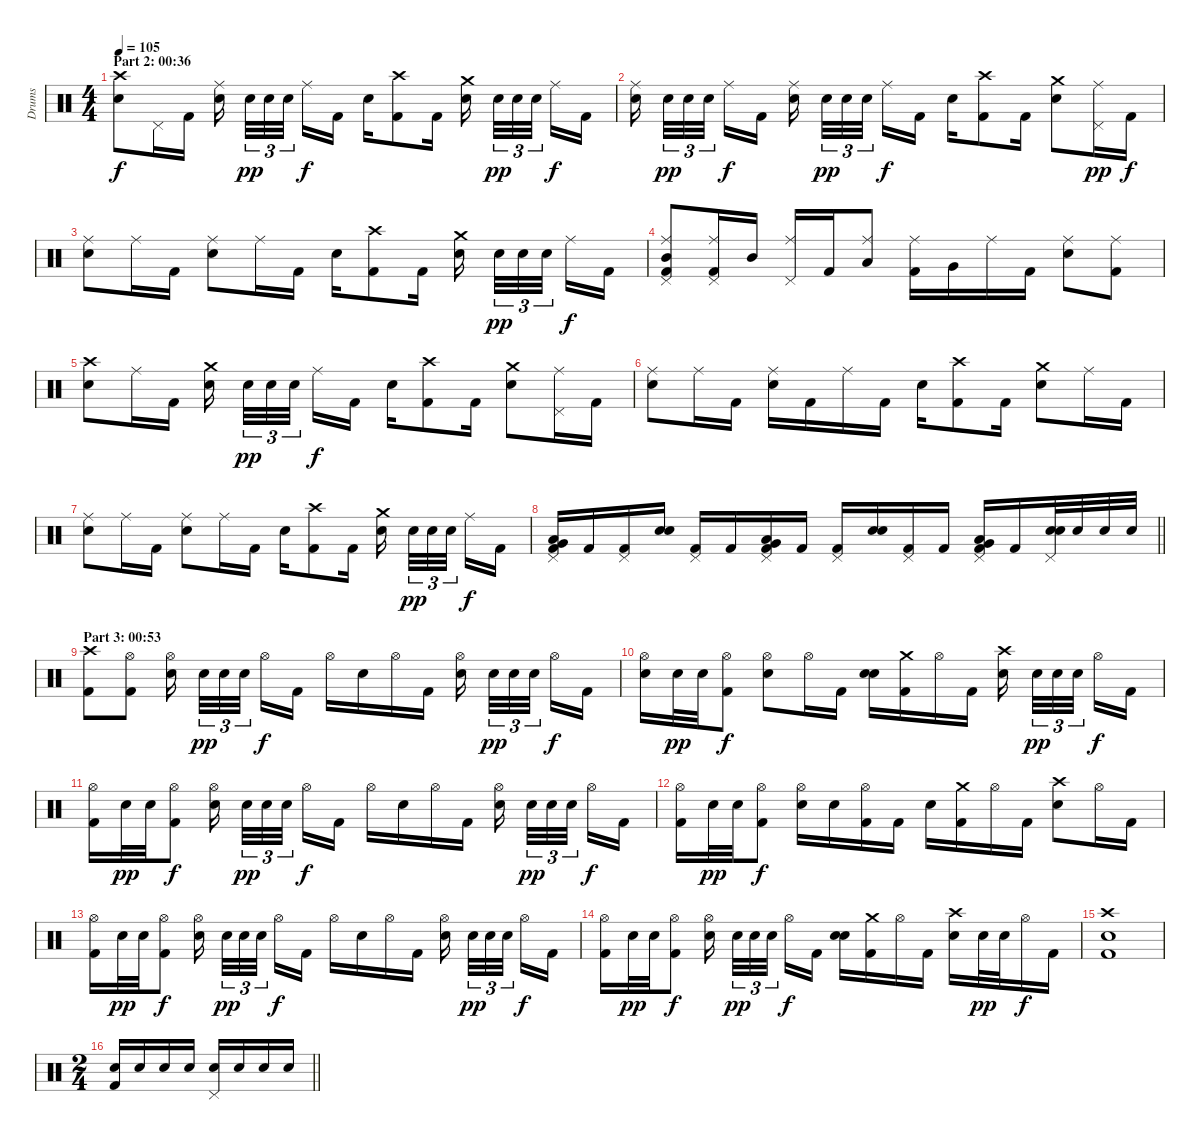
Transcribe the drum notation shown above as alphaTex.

\track ("Drums" "Drums") {instrument percussion}
\staff {score}
\articulation defaults
\ts (4 4)
\section ("" "Part 2: 00:36")
\tempo 105
\clef neutral
\ks c
("Crash high (hit)" "Electric Snare (hit)").8{dy f} "Pedal Hi-Hat (hit)".16 "Kick (hit) 2".16 ("Ride (middle)" "Electric Snare (hit)").16{beam splitsecondary} "Electric Snare (hit)".32{tu (3 2) dy pp} "Electric Snare (hit)".32{tu (3 2)} "Electric Snare (hit)".32{tu (3 2) beam splitsecondary} "Ride (middle)".16{dy f} "Kick (hit) 2".16 "Electric Snare (hit)".16 ("Crash high (hit)" "Kick (hit) 2").8 "Kick (hit) 2".16 ("Crash medium (hit)" "Electric Snare (hit)").16{beam splitsecondary} "Electric Snare (hit)".32{tu (3 2) dy pp} "Electric Snare (hit)".32{tu (3 2)} "Electric Snare (hit)".32{tu (3 2) beam splitsecondary} "Ride (middle)".16{dy f} "Kick (hit) 2".16 |
("Ride (middle)" "Electric Snare (hit)").16{beam splitsecondary} "Electric Snare (hit)".32{tu (3 2) dy pp} "Electric Snare (hit)".32{tu (3 2)} "Electric Snare (hit)".32{tu (3 2) beam splitsecondary} "Ride (middle)".16{dy f} "Kick (hit) 2".16 ("Ride (middle)" "Electric Snare (hit)").16{beam splitsecondary} "Electric Snare (hit)".32{tu (3 2) dy pp} "Electric Snare (hit)".32{tu (3 2)} "Electric Snare (hit)".32{tu (3 2) beam splitsecondary} "Ride (middle)".16{dy f} "Kick (hit) 2".16 "Electric Snare (hit)".16 ("Crash high (hit)" "Kick (hit) 2").8 "Kick (hit) 2".16 ("Crash medium (hit)" "Electric Snare (hit)").8 ("Ride (middle)" "Pedal Hi-Hat (hit)").16{dy pp} "Kick (hit) 2".16{dy f} |
("Ride (middle)" "Electric Snare (hit)").8 "Ride (middle)".16 "Kick (hit) 2".16 ("Ride (middle)" "Electric Snare (hit)").8 "Ride (middle)".16 "Kick (hit) 2".16 "Electric Snare (hit)".16 ("Crash high (hit)" "Kick (hit) 2").8 "Kick (hit) 2".16 ("Crash medium (hit)" "Electric Snare (hit)").16{beam splitsecondary} "Electric Snare (hit)".32{tu (3 2) dy pp} "Electric Snare (hit)".32{tu (3 2)} "Electric Snare (hit)".32{tu (3 2) beam splitsecondary} "Ride (middle)".16{dy f} "Kick (hit) 2".16 |
("Ride (middle)" "Pedal Hi-Hat (hit)" "Mid Tom (hit)" "Kick (hit) 2").8 ("Ride (middle)" "Pedal Hi-Hat (hit)" "Kick (hit) 2").16 "Mid Tom (hit)".16 ("Ride (middle)" "Pedal Hi-Hat (hit)").16 "Kick (hit) 2".16 ("Ride (middle)" "Low Tom (hit)").8 ("Ride (middle)" "Kick (hit) 2").16 "Very Low Tom (hit)".16 "Ride (middle)".16 "Kick (hit) 2".16 ("Ride (middle)" "Electric Snare (hit)").8 ("Ride (middle)" "Kick (hit) 2").8 |
("Crash high (hit)" "Electric Snare (hit)").8 "Ride (middle)".16 "Kick (hit) 2".16 ("Crash medium (hit)" "Electric Snare (hit)").16{beam splitsecondary} "Electric Snare (hit)".32{tu (3 2) dy pp} "Electric Snare (hit)".32{tu (3 2)} "Electric Snare (hit)".32{tu (3 2) beam splitsecondary} "Ride (middle)".16{dy f} "Kick (hit) 2".16 "Electric Snare (hit)".16 ("Crash high (hit)" "Kick (hit) 2").8 "Kick (hit) 2".16 ("Crash medium (hit)" "Electric Snare (hit)").8 ("Ride (middle)" "Pedal Hi-Hat (hit)").16 "Kick (hit) 2".16 |
("Ride (middle)" "Electric Snare (hit)").8 "Ride (middle)".16 "Kick (hit) 2".16 ("Ride (middle)" "Electric Snare (hit)").16 "Kick (hit) 2".16 "Ride (middle)".16 "Kick (hit) 2".16 "Electric Snare (hit)".16 ("Crash high (hit)" "Kick (hit) 2").8 "Kick (hit) 2".16 ("Crash medium (hit)" "Electric Snare (hit)").8 "Ride (middle)".16 "Kick (hit) 2".16 |
("Ride (middle)" "Electric Snare (hit)").8 "Ride (middle)".16 "Kick (hit) 2".16 ("Ride (middle)" "Electric Snare (hit)").8 "Ride (middle)".16 "Kick (hit) 2".16 "Electric Snare (hit)".16 ("Crash high (hit)" "Kick (hit) 2").8 "Kick (hit) 2".16 ("Crash medium (hit)" "Electric Snare (hit)").16{beam splitsecondary} "Electric Snare (hit)".32{tu (3 2) dy pp} "Electric Snare (hit)".32{tu (3 2)} "Electric Snare (hit)".32{tu (3 2) beam splitsecondary} "Ride (middle)".16{dy f} "Kick (hit) 2".16 |
\barLineRight lightlight
("Pedal Hi-Hat (hit)" "Low Tom (hit)" "Very Low Tom (hit)" "Kick (hit) 2").16{bu 60} "Kick (hit) 2".16 ("Pedal Hi-Hat (hit)" "Kick (hit) 2").16 ("Electric Snare (hit)" "Electric Snare (hit)").16{bu 60} ("Pedal Hi-Hat (hit)" "Kick (hit) 2").16 "Kick (hit) 2".16 ("Pedal Hi-Hat (hit)" "Low Tom (hit)" "Very Low Tom (hit)" "Kick (hit) 2").16{bu 60} "Kick (hit) 2".16 ("Pedal Hi-Hat (hit)" "Kick (hit) 2").16 ("Electric Snare (hit)" "Electric Snare (hit)").16{bu 60} ("Pedal Hi-Hat (hit)" "Kick (hit) 2").16 "Kick (hit) 2".16 ("Pedal Hi-Hat (hit)" "Low Tom (hit)" "Very Low Tom (hit)" "Kick (hit) 2").16{bu 60} "Kick (hit) 2".16 ("Pedal Hi-Hat (hit)" "Electric Snare (hit)" "Electric Snare (hit)").32{bu 60} "Electric Snare (hit)".32 "Electric Snare (hit)".32 "Electric Snare (hit)".32 |
\section ("" "Part 3: 00:53")
("Crash high (hit)" "Kick (hit) 2").8 ("Hi-Hat (open)" "Kick (hit) 2").8 ("Hi-Hat (open)" "Electric Snare (hit)").16{beam splitsecondary} "Electric Snare (hit)".32{tu (3 2) dy pp} "Electric Snare (hit)".32{tu (3 2)} "Electric Snare (hit)".32{tu (3 2) beam splitsecondary} "Hi-Hat (open)".16{dy f} "Kick (hit) 2".16 "Hi-Hat (open)".16 "Electric Snare (hit)".16 "Hi-Hat (open)".16 "Kick (hit) 2".16 ("Hi-Hat (open)" "Electric Snare (hit)").16{beam splitsecondary} "Electric Snare (hit)".32{tu (3 2) dy pp} "Electric Snare (hit)".32{tu (3 2)} "Electric Snare (hit)".32{tu (3 2) beam splitsecondary} "Hi-Hat (open)".16{dy f} "Kick (hit) 2".16 |
("Hi-Hat (open)" "Electric Snare (hit)").16 "Electric Snare (hit)".32{dy pp} "Electric Snare (hit)".32 ("Hi-Hat (open)" "Kick (hit) 2").8{dy f} ("Hi-Hat (open)" "Electric Snare (hit)").8 "Hi-Hat (open)".16 "Kick (hit) 2".16 ("Electric Snare (hit)" "Electric Snare (hit)").16{bu 60} ("Crash medium (hit)" "Kick (hit) 2").16 "Hi-Hat (open)".16 "Kick (hit) 2".16 ("Crash high (hit)" "Electric Snare (hit)").16{beam splitsecondary} "Electric Snare (hit)".32{tu (3 2) dy pp} "Electric Snare (hit)".32{tu (3 2)} "Electric Snare (hit)".32{tu (3 2) beam splitsecondary} "Hi-Hat (open)".16{dy f} "Kick (hit) 2".16 |
("Hi-Hat (open)" "Kick (hit) 2").16 "Electric Snare (hit)".32{dy pp} "Electric Snare (hit)".32 ("Hi-Hat (open)" "Kick (hit) 2").8{dy f} ("Hi-Hat (open)" "Electric Snare (hit)").16{beam splitsecondary} "Electric Snare (hit)".32{tu (3 2) dy pp} "Electric Snare (hit)".32{tu (3 2)} "Electric Snare (hit)".32{tu (3 2) beam splitsecondary} "Hi-Hat (open)".16{dy f} "Kick (hit) 2".16 "Hi-Hat (open)".16 "Electric Snare (hit)".16 "Hi-Hat (open)".16 "Kick (hit) 2".16 ("Hi-Hat (open)" "Electric Snare (hit)").16{beam splitsecondary} "Electric Snare (hit)".32{tu (3 2) dy pp} "Electric Snare (hit)".32{tu (3 2)} "Electric Snare (hit)".32{tu (3 2) beam splitsecondary} "Hi-Hat (open)".16{dy f} "Kick (hit) 2".16 |
("Hi-Hat (open)" "Kick (hit) 2").16 "Electric Snare (hit)".32{dy pp} "Electric Snare (hit)".32 ("Hi-Hat (open)" "Kick (hit) 2").8{dy f} ("Hi-Hat (open)" "Electric Snare (hit)").16 "Electric Snare (hit)".16 ("Hi-Hat (open)" "Kick (hit) 2").16 "Kick (hit) 2".16 "Electric Snare (hit)".16 ("Crash medium (hit)" "Kick (hit) 2").16 "Hi-Hat (open)".16 "Kick (hit) 2".16 ("Crash high (hit)" "Electric Snare (hit)").8 "Hi-Hat (open)".16 "Kick (hit) 2".16 |
("Hi-Hat (open)" "Kick (hit) 2").16 "Electric Snare (hit)".32{dy pp} "Electric Snare (hit)".32 ("Hi-Hat (open)" "Kick (hit) 2").8{dy f} ("Hi-Hat (open)" "Electric Snare (hit)").16{beam splitsecondary} "Electric Snare (hit)".32{tu (3 2) dy pp} "Electric Snare (hit)".32{tu (3 2)} "Electric Snare (hit)".32{tu (3 2) beam splitsecondary} "Hi-Hat (open)".16{dy f} "Kick (hit) 2".16 "Hi-Hat (open)".16 "Electric Snare (hit)".16 "Hi-Hat (open)".16 "Kick (hit) 2".16 ("Hi-Hat (open)" "Electric Snare (hit)").16{beam splitsecondary} "Electric Snare (hit)".32{tu (3 2) dy pp} "Electric Snare (hit)".32{tu (3 2)} "Electric Snare (hit)".32{tu (3 2) beam splitsecondary} "Hi-Hat (open)".16{dy f} "Kick (hit) 2".16 |
("Hi-Hat (open)" "Kick (hit) 2").16 "Electric Snare (hit)".32{dy pp} "Electric Snare (hit)".32 ("Hi-Hat (open)" "Kick (hit) 2").8{dy f} ("Hi-Hat (open)" "Electric Snare (hit)").16{beam splitsecondary} "Electric Snare (hit)".32{tu (3 2) dy pp} "Electric Snare (hit)".32{tu (3 2)} "Electric Snare (hit)".32{tu (3 2) beam splitsecondary} "Hi-Hat (open)".16{dy f} "Kick (hit) 2".16 ("Electric Snare (hit)" "Electric Snare (hit)").16{bu 60} ("Crash medium (hit)" "Kick (hit) 2").16 "Hi-Hat (open)".16 "Kick (hit) 2".16 ("Crash high (hit)" "Electric Snare (hit)").16 "Electric Snare (hit)".32{dy pp} "Electric Snare (hit)".32 "Hi-Hat (open)".16{dy f} "Kick (hit) 2".16 |
("Crash high (hit)" "Electric Snare (hit)" "Kick (hit) 2").1 |
\ts (2 4)
\barLineRight lightlight
("Electric Snare (hit)" "Kick (hit) 2").16 "Electric Snare (hit)".16 "Electric Snare (hit)".16 "Electric Snare (hit)".16 ("Pedal Hi-Hat (hit)" "Electric Snare (hit)").16 "Electric Snare (hit)".16 "Electric Snare (hit)".16 "Electric Snare (hit)".16
